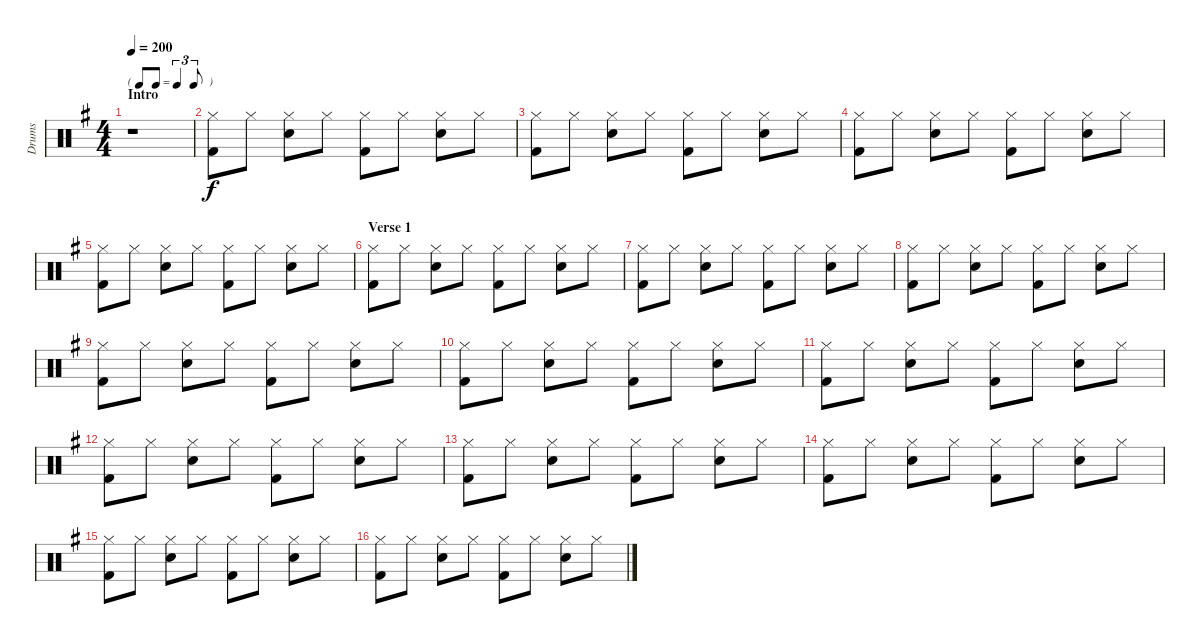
\track ("Drums" "Drums") {instrument percussion}
\staff {score}
\articulation defaults
\ts (4 4)
\tf triplet8th
\section ("" "Intro")
\tempo 200
\clef neutral
\ks g
r.1{dy f} |
("Hi-Hat (closed)" "Kick (hit) 2").8 "Hi-Hat (closed)".8 ("Hi-Hat (closed)" "Snare (hit) 2").8 "Hi-Hat (closed)".8 ("Hi-Hat (closed)" "Kick (hit) 2").8 "Hi-Hat (closed)".8 ("Hi-Hat (closed)" "Snare (hit) 2").8 "Hi-Hat (closed)".8 |
("Hi-Hat (closed)" "Kick (hit) 2").8 "Hi-Hat (closed)".8 ("Hi-Hat (closed)" "Snare (hit) 2").8 "Hi-Hat (closed)".8 ("Hi-Hat (closed)" "Kick (hit) 2").8 "Hi-Hat (closed)".8 ("Hi-Hat (closed)" "Snare (hit) 2").8 "Hi-Hat (closed)".8 |
("Hi-Hat (closed)" "Kick (hit) 2").8 "Hi-Hat (closed)".8 ("Hi-Hat (closed)" "Snare (hit) 2").8 "Hi-Hat (closed)".8 ("Hi-Hat (closed)" "Kick (hit) 2").8 "Hi-Hat (closed)".8 ("Hi-Hat (closed)" "Snare (hit) 2").8 "Hi-Hat (closed)".8 |
("Hi-Hat (closed)" "Kick (hit) 2").8 "Hi-Hat (closed)".8 ("Hi-Hat (closed)" "Snare (hit) 2").8 "Hi-Hat (closed)".8 ("Hi-Hat (closed)" "Kick (hit) 2").8 "Hi-Hat (closed)".8 ("Hi-Hat (closed)" "Snare (hit) 2").8 "Hi-Hat (closed)".8 |
\section ("" "Verse 1")
("Hi-Hat (closed)" "Kick (hit) 2").8 "Hi-Hat (closed)".8 ("Hi-Hat (closed)" "Snare (hit) 2").8 "Hi-Hat (closed)".8 ("Hi-Hat (closed)" "Kick (hit) 2").8 "Hi-Hat (closed)".8 ("Hi-Hat (closed)" "Snare (hit) 2").8 "Hi-Hat (closed)".8 |
("Hi-Hat (closed)" "Kick (hit) 2").8 "Hi-Hat (closed)".8 ("Hi-Hat (closed)" "Snare (hit) 2").8 "Hi-Hat (closed)".8 ("Hi-Hat (closed)" "Kick (hit) 2").8 "Hi-Hat (closed)".8 ("Hi-Hat (closed)" "Snare (hit) 2").8 "Hi-Hat (closed)".8 |
("Hi-Hat (closed)" "Kick (hit) 2").8 "Hi-Hat (closed)".8 ("Hi-Hat (closed)" "Snare (hit) 2").8 "Hi-Hat (closed)".8 ("Hi-Hat (closed)" "Kick (hit) 2").8 "Hi-Hat (closed)".8 ("Hi-Hat (closed)" "Snare (hit) 2").8 "Hi-Hat (closed)".8 |
("Hi-Hat (closed)" "Kick (hit) 2").8 "Hi-Hat (closed)".8 ("Hi-Hat (closed)" "Snare (hit) 2").8 "Hi-Hat (closed)".8 ("Hi-Hat (closed)" "Kick (hit) 2").8 "Hi-Hat (closed)".8 ("Hi-Hat (closed)" "Snare (hit) 2").8 "Hi-Hat (closed)".8 |
("Hi-Hat (closed)" "Kick (hit) 2").8 "Hi-Hat (closed)".8 ("Hi-Hat (closed)" "Snare (hit) 2").8 "Hi-Hat (closed)".8 ("Hi-Hat (closed)" "Kick (hit) 2").8 "Hi-Hat (closed)".8 ("Hi-Hat (closed)" "Snare (hit) 2").8 "Hi-Hat (closed)".8 |
("Hi-Hat (closed)" "Kick (hit) 2").8 "Hi-Hat (closed)".8 ("Hi-Hat (closed)" "Snare (hit) 2").8 "Hi-Hat (closed)".8 ("Hi-Hat (closed)" "Kick (hit) 2").8 "Hi-Hat (closed)".8 ("Hi-Hat (closed)" "Snare (hit) 2").8 "Hi-Hat (closed)".8 |
("Hi-Hat (closed)" "Kick (hit) 2").8 "Hi-Hat (closed)".8 ("Hi-Hat (closed)" "Snare (hit) 2").8 "Hi-Hat (closed)".8 ("Hi-Hat (closed)" "Kick (hit) 2").8 "Hi-Hat (closed)".8 ("Hi-Hat (closed)" "Snare (hit) 2").8 "Hi-Hat (closed)".8 |
("Hi-Hat (closed)" "Kick (hit) 2").8 "Hi-Hat (closed)".8 ("Hi-Hat (closed)" "Snare (hit) 2").8 "Hi-Hat (closed)".8 ("Hi-Hat (closed)" "Kick (hit) 2").8 "Hi-Hat (closed)".8 ("Hi-Hat (closed)" "Snare (hit) 2").8 "Hi-Hat (closed)".8 |
("Hi-Hat (closed)" "Kick (hit) 2").8 "Hi-Hat (closed)".8 ("Hi-Hat (closed)" "Snare (hit) 2").8 "Hi-Hat (closed)".8 ("Hi-Hat (closed)" "Kick (hit) 2").8 "Hi-Hat (closed)".8 ("Hi-Hat (closed)" "Snare (hit) 2").8 "Hi-Hat (closed)".8 |
("Hi-Hat (closed)" "Kick (hit) 2").8 "Hi-Hat (closed)".8 ("Hi-Hat (closed)" "Snare (hit) 2").8 "Hi-Hat (closed)".8 ("Hi-Hat (closed)" "Kick (hit) 2").8 "Hi-Hat (closed)".8 ("Hi-Hat (closed)" "Snare (hit) 2").8 "Hi-Hat (closed)".8 |
("Hi-Hat (closed)" "Kick (hit) 2").8 "Hi-Hat (closed)".8 ("Hi-Hat (closed)" "Snare (hit) 2").8 "Hi-Hat (closed)".8 ("Hi-Hat (closed)" "Kick (hit) 2").8 "Hi-Hat (closed)".8 ("Hi-Hat (closed)" "Snare (hit) 2").8 "Hi-Hat (closed)".8
